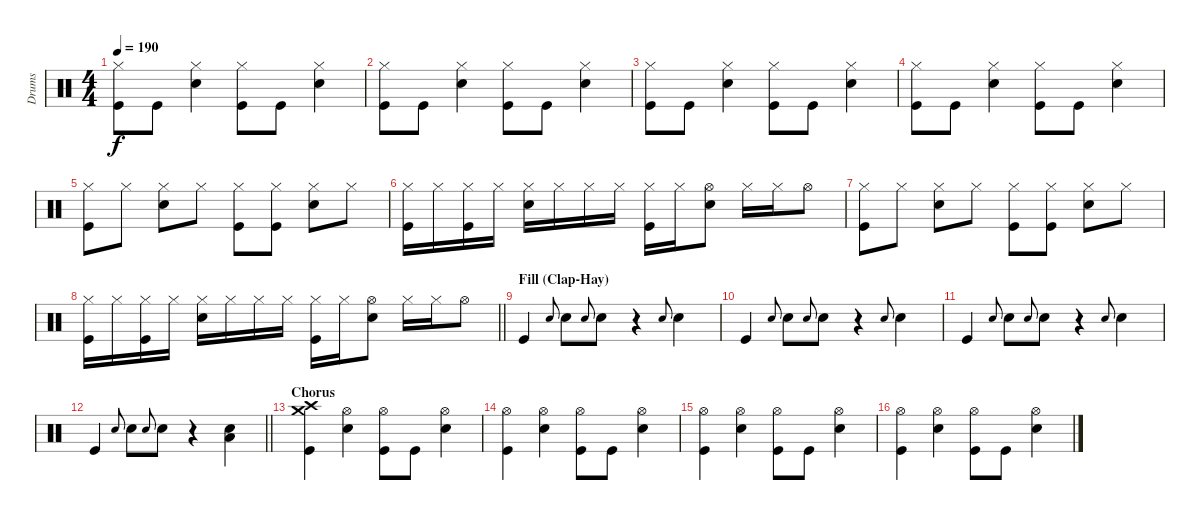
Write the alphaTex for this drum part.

\track ("Drums" "Drums") {instrument percussion}
\staff {score}
\articulation defaults
\ts (4 4)
\tempo 190
\clef neutral
\ks c
("Hi-Hat (closed)" "Kick (hit)").8{dy f} "Kick (hit)".8 ("Hi-Hat (closed)" "Snare (hit) 2").4 ("Hi-Hat (closed)" "Kick (hit)").8 "Kick (hit)".8 ("Hi-Hat (closed)" "Snare (hit) 2").4 |
("Hi-Hat (closed)" "Kick (hit)").8 "Kick (hit)".8 ("Hi-Hat (closed)" "Snare (hit) 2").4 ("Hi-Hat (closed)" "Kick (hit)").8 "Kick (hit)".8 ("Hi-Hat (closed)" "Snare (hit) 2").4 |
("Hi-Hat (closed)" "Kick (hit)").8 "Kick (hit)".8 ("Hi-Hat (closed)" "Snare (hit) 2").4 ("Hi-Hat (closed)" "Kick (hit)").8 "Kick (hit)".8 ("Hi-Hat (closed)" "Snare (hit) 2").4 |
("Hi-Hat (closed)" "Kick (hit)").8 "Kick (hit)".8 ("Hi-Hat (closed)" "Snare (hit) 2").4 ("Hi-Hat (closed)" "Kick (hit)").8 "Kick (hit)".8 ("Hi-Hat (closed)" "Snare (hit) 2").4 |
("Hi-Hat (closed)" "Kick (hit)").8 "Hi-Hat (closed)".8 ("Hi-Hat (closed)" "Snare (hit) 2").8 "Hi-Hat (closed)".8 ("Hi-Hat (closed)" "Kick (hit)").8 ("Hi-Hat (closed)" "Kick (hit)").8 ("Hi-Hat (closed)" "Snare (hit) 2").8 "Hi-Hat (closed)".8 |
("Hi-Hat (closed)" "Kick (hit)").16 "Hi-Hat (closed)".16 ("Hi-Hat (closed)" "Kick (hit)").16 "Hi-Hat (closed)".16 ("Hi-Hat (closed)" "Snare (hit) 2").16 "Hi-Hat (closed)".16 "Hi-Hat (closed)".16 "Hi-Hat (closed)".16 ("Hi-Hat (closed)" "Kick (hit)").16 "Hi-Hat (closed)".16 ("Hi-Hat (open)" "Snare (hit) 2").8 "Hi-Hat (closed)".16 "Hi-Hat (closed)".16 "Hi-Hat (open)".8 |
("Hi-Hat (closed)" "Kick (hit)").8 "Hi-Hat (closed)".8 ("Hi-Hat (closed)" "Snare (hit) 2").8 "Hi-Hat (closed)".8 ("Hi-Hat (closed)" "Kick (hit)").8 ("Hi-Hat (closed)" "Kick (hit)").8 ("Hi-Hat (closed)" "Snare (hit) 2").8 "Hi-Hat (closed)".8 |
\barLineRight lightlight
("Hi-Hat (closed)" "Kick (hit)").16 "Hi-Hat (closed)".16 ("Hi-Hat (closed)" "Kick (hit)").16 "Hi-Hat (closed)".16 ("Hi-Hat (closed)" "Snare (hit) 2").16 "Hi-Hat (closed)".16 "Hi-Hat (closed)".16 "Hi-Hat (closed)".16 ("Hi-Hat (closed)" "Kick (hit)").16 "Hi-Hat (closed)".16 ("Hi-Hat (open)" "Snare (hit) 2").8 "Hi-Hat (closed)".16 "Hi-Hat (closed)".16 "Hi-Hat (open)".8 |
\section ("" "Fill (Clap-Hay)")
"Kick (hit)".4 "Snare (hit) 2".8{gr onbeat} "Snare (hit) 2".8 "Snare (hit) 2".8{gr onbeat} "Snare (hit) 2".8 r.4 "Snare (hit) 2".8{gr onbeat} "Snare (hit) 2".4 |
"Kick (hit)".4 "Snare (hit) 2".8{gr onbeat} "Snare (hit) 2".8 "Snare (hit) 2".8{gr onbeat} "Snare (hit) 2".8 r.4 "Snare (hit) 2".8{gr onbeat} "Snare (hit) 2".4 |
"Kick (hit)".4 "Snare (hit) 2".8{gr onbeat} "Snare (hit) 2".8 "Snare (hit) 2".8{gr onbeat} "Snare (hit) 2".8 r.4 "Snare (hit) 2".8{gr onbeat} "Snare (hit) 2".4 |
\barLineRight lightlight "Kick (hit)".4 "Snare (hit) 2".8{gr onbeat} "Snare (hit) 2".8 "Snare (hit) 2".8{gr onbeat} "Snare (hit) 2".8
r.4 ("Snare (hit) 2" "Low Floor Tom (hit)").4 |
\section ("" "Chorus")
("Crash high (hit)" "Crash medium (hit)" "Kick (hit)").4 ("Hi-Hat (open)" "Snare (hit) 2").4 ("Hi-Hat (open)" "Kick (hit)").8 "Kick (hit)".8 ("Hi-Hat (open)" "Snare (hit) 2").4 |
("Hi-Hat (open)" "Kick (hit)").4 ("Hi-Hat (open)" "Snare (hit) 2").4 ("Hi-Hat (open)" "Kick (hit)").8 "Kick (hit)".8 ("Hi-Hat (open)" "Snare (hit) 2").4 |
("Hi-Hat (open)" "Kick (hit)").4 ("Hi-Hat (open)" "Snare (hit) 2").4 ("Hi-Hat (open)" "Kick (hit)").8 "Kick (hit)".8 ("Hi-Hat (open)" "Snare (hit) 2").4 |
("Hi-Hat (open)" "Kick (hit)").4 ("Hi-Hat (open)" "Snare (hit) 2").4 ("Hi-Hat (open)" "Kick (hit)").8 "Kick (hit)".8 ("Hi-Hat (open)" "Snare (hit) 2").4
